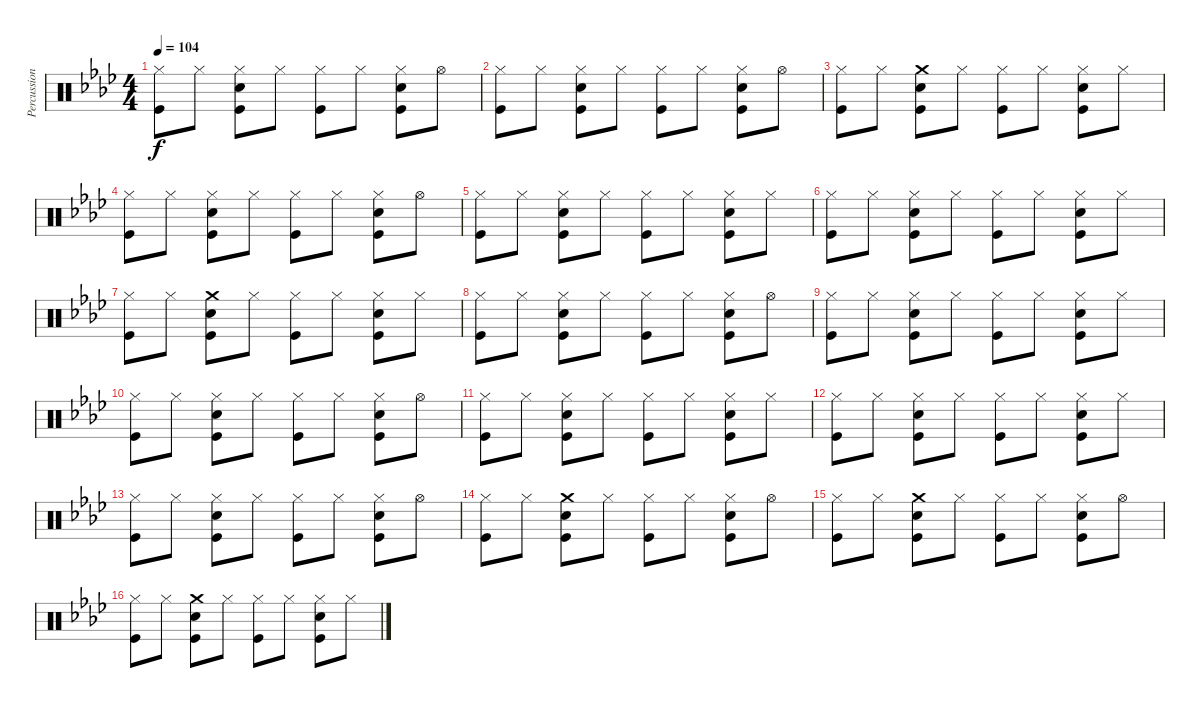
\track ("Percussion" "Percussion") {instrument percussion}
\staff {score}
\articulation defaults
\ts (4 4)
\tempo 104
\clef neutral
\ks ab
("Hi-Hat (closed)" "Kick (hit)").8{dy f} "Hi-Hat (closed)".8 ("Hi-Hat (closed)" "Snare (hit) 2" "Kick (hit)").8 "Hi-Hat (closed)".8 ("Hi-Hat (closed)" "Kick (hit)").8 "Hi-Hat (closed)".8 ("Hi-Hat (closed)" "Snare (hit) 2" "Kick (hit)").8 "Hi-Hat (open)".8 |
("Hi-Hat (closed)" "Kick (hit)").8 "Hi-Hat (closed)".8 ("Hi-Hat (closed)" "Snare (hit) 2" "Kick (hit)").8 "Hi-Hat (closed)".8 ("Hi-Hat (closed)" "Kick (hit)").8 "Hi-Hat (closed)".8 ("Hi-Hat (closed)" "Snare (hit) 2" "Kick (hit)").8 "Hi-Hat (open)".8 |
("Hi-Hat (closed)" "Kick (hit)").8 "Hi-Hat (closed)".8 ("Crash medium (hit)" "Snare (hit) 2" "Kick (hit)").8 "Hi-Hat (closed)".8 ("Hi-Hat (closed)" "Kick (hit)").8 "Hi-Hat (closed)".8 ("Hi-Hat (closed)" "Snare (hit) 2" "Kick (hit)").8 "Hi-Hat (closed)".8 |
("Hi-Hat (closed)" "Kick (hit)").8 "Hi-Hat (closed)".8 ("Hi-Hat (closed)" "Snare (hit) 2" "Kick (hit)").8 "Hi-Hat (closed)".8 ("Hi-Hat (closed)" "Kick (hit)").8 "Hi-Hat (closed)".8 ("Hi-Hat (closed)" "Snare (hit) 2" "Kick (hit)").8 "Hi-Hat (open)".8 |
("Hi-Hat (closed)" "Kick (hit)").8 "Hi-Hat (closed)".8 ("Hi-Hat (closed)" "Snare (hit) 2" "Kick (hit)").8 "Hi-Hat (closed)".8 ("Hi-Hat (closed)" "Kick (hit)").8 "Hi-Hat (closed)".8 ("Hi-Hat (closed)" "Snare (hit) 2" "Kick (hit)").8 "Hi-Hat (closed)".8 |
("Hi-Hat (closed)" "Kick (hit)").8 "Hi-Hat (closed)".8 ("Hi-Hat (closed)" "Snare (hit) 2" "Kick (hit)").8 "Hi-Hat (closed)".8 ("Hi-Hat (closed)" "Kick (hit)").8 "Hi-Hat (closed)".8 ("Hi-Hat (closed)" "Snare (hit) 2" "Kick (hit)").8 "Hi-Hat (closed)".8 |
("Hi-Hat (closed)" "Kick (hit)").8 "Hi-Hat (closed)".8 ("Crash medium (hit)" "Snare (hit) 2" "Kick (hit)").8 "Hi-Hat (closed)".8 ("Hi-Hat (closed)" "Kick (hit)").8 "Hi-Hat (closed)".8 ("Hi-Hat (closed)" "Snare (hit) 2" "Kick (hit)").8 "Hi-Hat (closed)".8 |
("Hi-Hat (closed)" "Kick (hit)").8 "Hi-Hat (closed)".8 ("Hi-Hat (closed)" "Snare (hit) 2" "Kick (hit)").8 "Hi-Hat (closed)".8 ("Hi-Hat (closed)" "Kick (hit)").8 "Hi-Hat (closed)".8 ("Hi-Hat (closed)" "Snare (hit) 2" "Kick (hit)").8 "Hi-Hat (open)".8 |
("Hi-Hat (closed)" "Kick (hit)").8 "Hi-Hat (closed)".8 ("Hi-Hat (closed)" "Snare (hit) 2" "Kick (hit)").8 "Hi-Hat (closed)".8 ("Hi-Hat (closed)" "Kick (hit)").8 "Hi-Hat (closed)".8 ("Hi-Hat (closed)" "Snare (hit) 2" "Kick (hit)").8 "Hi-Hat (closed)".8 |
("Hi-Hat (closed)" "Kick (hit)").8 "Hi-Hat (closed)".8 ("Hi-Hat (closed)" "Snare (hit) 2" "Kick (hit)").8 "Hi-Hat (closed)".8 ("Hi-Hat (closed)" "Kick (hit)").8 "Hi-Hat (closed)".8 ("Hi-Hat (closed)" "Snare (hit) 2" "Kick (hit)").8 "Hi-Hat (open)".8 |
("Hi-Hat (closed)" "Kick (hit)").8 "Hi-Hat (closed)".8 ("Hi-Hat (closed)" "Snare (hit) 2" "Kick (hit)").8 "Hi-Hat (closed)".8 ("Hi-Hat (closed)" "Kick (hit)").8 "Hi-Hat (closed)".8 ("Hi-Hat (closed)" "Snare (hit) 2" "Kick (hit)").8 "Hi-Hat (closed)".8 |
("Hi-Hat (closed)" "Kick (hit)").8 "Hi-Hat (closed)".8 ("Hi-Hat (closed)" "Snare (hit) 2" "Kick (hit)").8 "Hi-Hat (closed)".8 ("Hi-Hat (closed)" "Kick (hit)").8 "Hi-Hat (closed)".8 ("Hi-Hat (closed)" "Snare (hit) 2" "Kick (hit)").8 "Hi-Hat (closed)".8 |
("Hi-Hat (closed)" "Kick (hit)").8 "Hi-Hat (closed)".8 ("Hi-Hat (closed)" "Snare (hit) 2" "Kick (hit)").8 "Hi-Hat (closed)".8 ("Hi-Hat (closed)" "Kick (hit)").8 "Hi-Hat (closed)".8 ("Hi-Hat (closed)" "Snare (hit) 2" "Kick (hit)").8 "Hi-Hat (open)".8 |
("Hi-Hat (closed)" "Kick (hit)").8 "Hi-Hat (closed)".8 ("Crash medium (hit)" "Snare (hit) 2" "Kick (hit)").8 "Hi-Hat (closed)".8 ("Hi-Hat (closed)" "Kick (hit)").8 "Hi-Hat (closed)".8 ("Hi-Hat (closed)" "Snare (hit) 2" "Kick (hit)").8 "Hi-Hat (open)".8 |
("Hi-Hat (closed)" "Kick (hit)").8 "Hi-Hat (closed)".8 ("Crash medium (hit)" "Snare (hit) 2" "Kick (hit)").8 "Hi-Hat (closed)".8 ("Hi-Hat (closed)" "Kick (hit)").8 "Hi-Hat (closed)".8 ("Hi-Hat (closed)" "Snare (hit) 2" "Kick (hit)").8 "Hi-Hat (open)".8 |
("Hi-Hat (closed)" "Kick (hit)").8 "Hi-Hat (closed)".8 ("Crash medium (hit)" "Snare (hit) 2" "Kick (hit)").8 "Hi-Hat (closed)".8 ("Hi-Hat (closed)" "Kick (hit)").8 "Hi-Hat (closed)".8 ("Hi-Hat (closed)" "Snare (hit) 2" "Kick (hit)").8 "Hi-Hat (closed)".8
